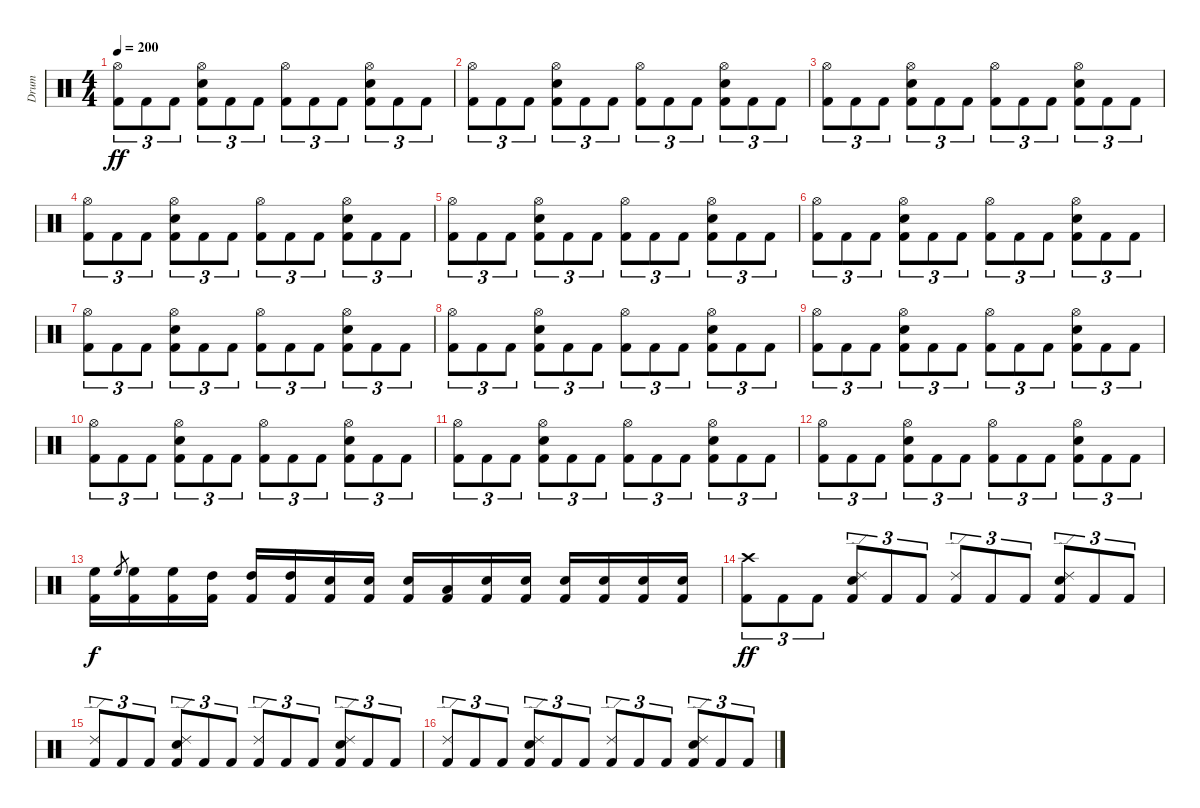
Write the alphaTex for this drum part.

\track ("Drum" "Drum") {instrument percussion}
\staff {score}
\articulation defaults
\ts (4 4)
\tempo 200
\clef neutral
\ks c
("Hi-Hat (open)" "Kick (hit) 2").8{tu (3 2) dy ff} "Kick (hit) 2".8{tu (3 2)} "Kick (hit) 2".8{tu (3 2)} ("Hi-Hat (open)" "Snare (hit) 2" "Kick (hit) 2").8{tu (3 2)} "Kick (hit) 2".8{tu (3 2)} "Kick (hit) 2".8{tu (3 2)} ("Hi-Hat (open)" "Kick (hit) 2").8{tu (3 2)} "Kick (hit) 2".8{tu (3 2)} "Kick (hit) 2".8{tu (3 2)} ("Hi-Hat (open)" "Snare (hit) 2" "Kick (hit) 2").8{tu (3 2)} "Kick (hit) 2".8{tu (3 2)} "Kick (hit) 2".8{tu (3 2)} |
("Hi-Hat (open)" "Kick (hit) 2").8{tu (3 2)} "Kick (hit) 2".8{tu (3 2)} "Kick (hit) 2".8{tu (3 2)} ("Hi-Hat (open)" "Snare (hit) 2" "Kick (hit) 2").8{tu (3 2)} "Kick (hit) 2".8{tu (3 2)} "Kick (hit) 2".8{tu (3 2)} ("Hi-Hat (open)" "Kick (hit) 2").8{tu (3 2)} "Kick (hit) 2".8{tu (3 2)} "Kick (hit) 2".8{tu (3 2)} ("Hi-Hat (open)" "Snare (hit) 2" "Kick (hit) 2").8{tu (3 2)} "Kick (hit) 2".8{tu (3 2)} "Kick (hit) 2".8{tu (3 2)} |
("Hi-Hat (open)" "Kick (hit) 2").8{tu (3 2)} "Kick (hit) 2".8{tu (3 2)} "Kick (hit) 2".8{tu (3 2)} ("Hi-Hat (open)" "Snare (hit) 2" "Kick (hit) 2").8{tu (3 2)} "Kick (hit) 2".8{tu (3 2)} "Kick (hit) 2".8{tu (3 2)} ("Hi-Hat (open)" "Kick (hit) 2").8{tu (3 2)} "Kick (hit) 2".8{tu (3 2)} "Kick (hit) 2".8{tu (3 2)} ("Hi-Hat (open)" "Snare (hit) 2" "Kick (hit) 2").8{tu (3 2)} "Kick (hit) 2".8{tu (3 2)} "Kick (hit) 2".8{tu (3 2)} |
("Hi-Hat (open)" "Kick (hit) 2").8{tu (3 2)} "Kick (hit) 2".8{tu (3 2)} "Kick (hit) 2".8{tu (3 2)} ("Hi-Hat (open)" "Snare (hit) 2" "Kick (hit) 2").8{tu (3 2)} "Kick (hit) 2".8{tu (3 2)} "Kick (hit) 2".8{tu (3 2)} ("Hi-Hat (open)" "Kick (hit) 2").8{tu (3 2)} "Kick (hit) 2".8{tu (3 2)} "Kick (hit) 2".8{tu (3 2)} ("Hi-Hat (open)" "Snare (hit) 2" "Kick (hit) 2").8{tu (3 2)} "Kick (hit) 2".8{tu (3 2)} "Kick (hit) 2".8{tu (3 2)} |
("Hi-Hat (open)" "Kick (hit) 2").8{tu (3 2)} "Kick (hit) 2".8{tu (3 2)} "Kick (hit) 2".8{tu (3 2)} ("Hi-Hat (open)" "Snare (hit) 2" "Kick (hit) 2").8{tu (3 2)} "Kick (hit) 2".8{tu (3 2)} "Kick (hit) 2".8{tu (3 2)} ("Hi-Hat (open)" "Kick (hit) 2").8{tu (3 2)} "Kick (hit) 2".8{tu (3 2)} "Kick (hit) 2".8{tu (3 2)} ("Hi-Hat (open)" "Snare (hit) 2" "Kick (hit) 2").8{tu (3 2)} "Kick (hit) 2".8{tu (3 2)} "Kick (hit) 2".8{tu (3 2)} |
("Hi-Hat (open)" "Kick (hit) 2").8{tu (3 2)} "Kick (hit) 2".8{tu (3 2)} "Kick (hit) 2".8{tu (3 2)} ("Hi-Hat (open)" "Snare (hit) 2" "Kick (hit) 2").8{tu (3 2)} "Kick (hit) 2".8{tu (3 2)} "Kick (hit) 2".8{tu (3 2)} ("Hi-Hat (open)" "Kick (hit) 2").8{tu (3 2)} "Kick (hit) 2".8{tu (3 2)} "Kick (hit) 2".8{tu (3 2)} ("Hi-Hat (open)" "Snare (hit) 2" "Kick (hit) 2").8{tu (3 2)} "Kick (hit) 2".8{tu (3 2)} "Kick (hit) 2".8{tu (3 2)} |
("Hi-Hat (open)" "Kick (hit) 2").8{tu (3 2)} "Kick (hit) 2".8{tu (3 2)} "Kick (hit) 2".8{tu (3 2)} ("Hi-Hat (open)" "Snare (hit) 2" "Kick (hit) 2").8{tu (3 2)} "Kick (hit) 2".8{tu (3 2)} "Kick (hit) 2".8{tu (3 2)} ("Hi-Hat (open)" "Kick (hit) 2").8{tu (3 2)} "Kick (hit) 2".8{tu (3 2)} "Kick (hit) 2".8{tu (3 2)} ("Hi-Hat (open)" "Snare (hit) 2" "Kick (hit) 2").8{tu (3 2)} "Kick (hit) 2".8{tu (3 2)} "Kick (hit) 2".8{tu (3 2)} |
("Hi-Hat (open)" "Kick (hit) 2").8{tu (3 2)} "Kick (hit) 2".8{tu (3 2)} "Kick (hit) 2".8{tu (3 2)} ("Hi-Hat (open)" "Snare (hit) 2" "Kick (hit) 2").8{tu (3 2)} "Kick (hit) 2".8{tu (3 2)} "Kick (hit) 2".8{tu (3 2)} ("Hi-Hat (open)" "Kick (hit) 2").8{tu (3 2)} "Kick (hit) 2".8{tu (3 2)} "Kick (hit) 2".8{tu (3 2)} ("Hi-Hat (open)" "Snare (hit) 2" "Kick (hit) 2").8{tu (3 2)} "Kick (hit) 2".8{tu (3 2)} "Kick (hit) 2".8{tu (3 2)} |
("Hi-Hat (open)" "Kick (hit) 2").8{tu (3 2)} "Kick (hit) 2".8{tu (3 2)} "Kick (hit) 2".8{tu (3 2)} ("Hi-Hat (open)" "Snare (hit) 2" "Kick (hit) 2").8{tu (3 2)} "Kick (hit) 2".8{tu (3 2)} "Kick (hit) 2".8{tu (3 2)} ("Hi-Hat (open)" "Kick (hit) 2").8{tu (3 2)} "Kick (hit) 2".8{tu (3 2)} "Kick (hit) 2".8{tu (3 2)} ("Hi-Hat (open)" "Snare (hit) 2" "Kick (hit) 2").8{tu (3 2)} "Kick (hit) 2".8{tu (3 2)} "Kick (hit) 2".8{tu (3 2)} |
("Hi-Hat (open)" "Kick (hit) 2").8{tu (3 2)} "Kick (hit) 2".8{tu (3 2)} "Kick (hit) 2".8{tu (3 2)} ("Hi-Hat (open)" "Snare (hit) 2" "Kick (hit) 2").8{tu (3 2)} "Kick (hit) 2".8{tu (3 2)} "Kick (hit) 2".8{tu (3 2)} ("Hi-Hat (open)" "Kick (hit) 2").8{tu (3 2)} "Kick (hit) 2".8{tu (3 2)} "Kick (hit) 2".8{tu (3 2)} ("Hi-Hat (open)" "Snare (hit) 2" "Kick (hit) 2").8{tu (3 2)} "Kick (hit) 2".8{tu (3 2)} "Kick (hit) 2".8{tu (3 2)} |
("Hi-Hat (open)" "Kick (hit) 2").8{tu (3 2)} "Kick (hit) 2".8{tu (3 2)} "Kick (hit) 2".8{tu (3 2)} ("Hi-Hat (open)" "Snare (hit) 2" "Kick (hit) 2").8{tu (3 2)} "Kick (hit) 2".8{tu (3 2)} "Kick (hit) 2".8{tu (3 2)} ("Hi-Hat (open)" "Kick (hit) 2").8{tu (3 2)} "Kick (hit) 2".8{tu (3 2)} "Kick (hit) 2".8{tu (3 2)} ("Hi-Hat (open)" "Snare (hit) 2" "Kick (hit) 2").8{tu (3 2)} "Kick (hit) 2".8{tu (3 2)} "Kick (hit) 2".8{tu (3 2)} |
("Hi-Hat (open)" "Kick (hit) 2").8{tu (3 2)} "Kick (hit) 2".8{tu (3 2)} "Kick (hit) 2".8{tu (3 2)} ("Hi-Hat (open)" "Snare (hit) 2" "Kick (hit) 2").8{tu (3 2)} "Kick (hit) 2".8{tu (3 2)} "Kick (hit) 2".8{tu (3 2)} ("Hi-Hat (open)" "Kick (hit) 2").8{tu (3 2)} "Kick (hit) 2".8{tu (3 2)} "Kick (hit) 2".8{tu (3 2)} ("Hi-Hat (open)" "Snare (hit) 2" "Kick (hit) 2").8{tu (3 2)} "Kick (hit) 2".8{tu (3 2)} "Kick (hit) 2".8{tu (3 2)} |
("High Floor Tom (hit)" "Kick (hit) 2").16{dy f} "High Floor Tom (hit)".8{gr} ("High Floor Tom (hit)" "Kick (hit) 2").16 ("High Floor Tom (hit)" "Kick (hit) 2").16 ("High Tom (hit)" "Kick (hit) 2").16 ("High Tom (hit)" "Kick (hit) 2").16 ("High Tom (hit)" "Kick (hit) 2").16 ("Electric Snare (hit)" "Kick (hit) 2").16 ("Electric Snare (hit)" "Kick (hit) 2").16 ("Electric Snare (hit)" "Kick (hit) 2").16 ("Low Tom (hit)" "Kick (hit) 2").16 ("Electric Snare (hit)" "Kick (hit) 2").16 ("Electric Snare (hit)" "Kick (hit) 2").16 ("Electric Snare (hit)" "Kick (hit) 2").16 ("Electric Snare (hit)" "Kick (hit) 2").16 ("Electric Snare (hit)" "Kick (hit) 2").16 ("Electric Snare (hit)" "Kick (hit) 2").16 |
("Crash high (hit)" "Kick (hit) 2").8{tu (3 2) dy ff} "Kick (hit) 2".8{tu (3 2)} "Kick (hit) 2".8{tu (3 2)} ("Ride (edge) 2" "Snare (hit) 2" "Kick (hit) 2").8{tu (3 2)} "Kick (hit) 2".8{tu (3 2)} "Kick (hit) 2".8{tu (3 2)} ("Ride (edge) 2" "Kick (hit) 2").8{tu (3 2)} "Kick (hit) 2".8{tu (3 2)} "Kick (hit) 2".8{tu (3 2)} ("Ride (edge) 2" "Snare (hit) 2" "Kick (hit) 2").8{tu (3 2)} "Kick (hit) 2".8{tu (3 2)} "Kick (hit) 2".8{tu (3 2)} |
("Ride (edge) 2" "Kick (hit) 2").8{tu (3 2)} "Kick (hit) 2".8{tu (3 2)} "Kick (hit) 2".8{tu (3 2)} ("Ride (edge) 2" "Snare (hit) 2" "Kick (hit) 2").8{tu (3 2)} "Kick (hit) 2".8{tu (3 2)} "Kick (hit) 2".8{tu (3 2)} ("Ride (edge) 2" "Kick (hit) 2").8{tu (3 2)} "Kick (hit) 2".8{tu (3 2)} "Kick (hit) 2".8{tu (3 2)} ("Ride (edge) 2" "Snare (hit) 2" "Kick (hit) 2").8{tu (3 2)} "Kick (hit) 2".8{tu (3 2)} "Kick (hit) 2".8{tu (3 2)} |
("Ride (edge) 2" "Kick (hit) 2").8{tu (3 2)} "Kick (hit) 2".8{tu (3 2)} "Kick (hit) 2".8{tu (3 2)} ("Ride (edge) 2" "Snare (hit) 2" "Kick (hit) 2").8{tu (3 2)} "Kick (hit) 2".8{tu (3 2)} "Kick (hit) 2".8{tu (3 2)} ("Ride (edge) 2" "Kick (hit) 2").8{tu (3 2)} "Kick (hit) 2".8{tu (3 2)} "Kick (hit) 2".8{tu (3 2)} ("Ride (edge) 2" "Snare (hit) 2" "Kick (hit) 2").8{tu (3 2)} "Kick (hit) 2".8{tu (3 2)} "Kick (hit) 2".8{tu (3 2)}
